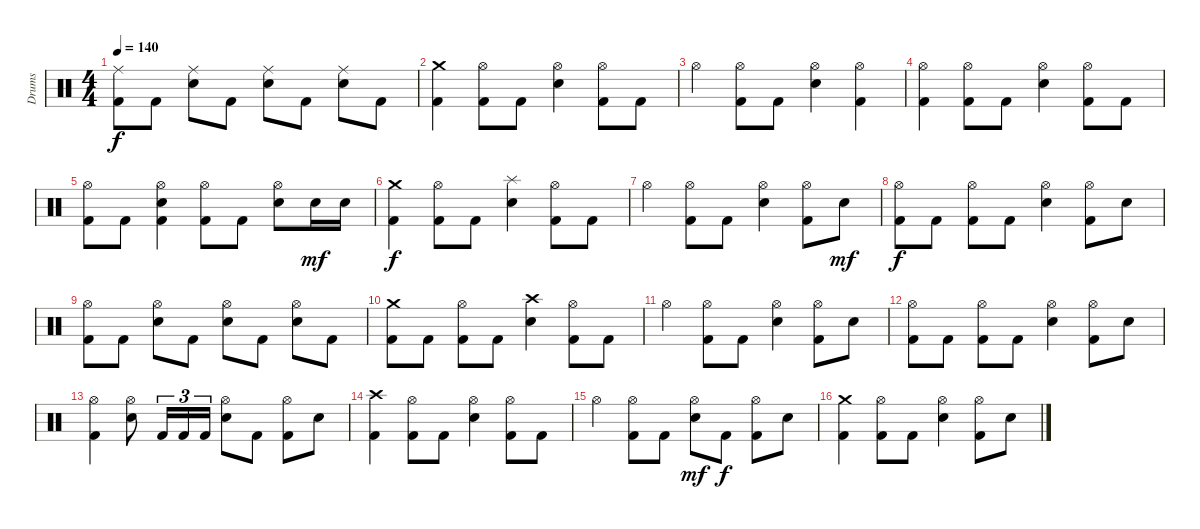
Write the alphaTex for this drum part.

\track ("Drums" "Drums") {instrument percussion}
\staff {score}
\articulation defaults
\ts (4 4)
\tempo 140
\clef neutral
\ks c
("Ride (middle)" "Kick (hit) 2").8{dy f} "Kick (hit) 2".8 ("Ride (middle)" "Electric Snare (hit)").8 "Kick (hit) 2".8 ("Ride (middle)" "Electric Snare (hit)").8 "Kick (hit) 2".8 ("Ride (middle)" "Electric Snare (hit)").8 "Kick (hit) 2".8 |
("Crash medium (hit)" "Kick (hit) 2").4 ("Hi-Hat (open)" "Kick (hit) 2").8 "Kick (hit) 2".8 ("Hi-Hat (open)" "Electric Snare (hit)").4 ("Hi-Hat (open)" "Kick (hit) 2").8 "Kick (hit) 2".8 |
"Hi-Hat (open)".4 ("Hi-Hat (open)" "Kick (hit) 2").8 "Kick (hit) 2".8 ("Hi-Hat (open)" "Electric Snare (hit)").4 ("Hi-Hat (open)" "Kick (hit) 2").4 |
("Hi-Hat (open)" "Kick (hit) 2").4 ("Hi-Hat (open)" "Kick (hit) 2").8 "Kick (hit) 2".8 ("Hi-Hat (open)" "Electric Snare (hit)").4 ("Hi-Hat (open)" "Kick (hit) 2").8 "Kick (hit) 2".8 |
("Hi-Hat (open)" "Kick (hit) 2").8 "Kick (hit) 2".8 ("Hi-Hat (open)" "Electric Snare (hit)" "Kick (hit) 2").4 ("Hi-Hat (open)" "Kick (hit) 2").8 "Kick (hit) 2".8 ("Hi-Hat (open)" "Electric Snare (hit)").8 "Electric Snare (hit)".16{dy mf} "Electric Snare (hit)".16 |
("Crash medium (hit)" "Kick (hit) 2").4{dy f} ("Hi-Hat (open)" "Kick (hit) 2").8 "Kick (hit) 2".8 ("Splash (hit)" "Electric Snare (hit)").4 ("Hi-Hat (open)" "Kick (hit) 2").8 "Kick (hit) 2".8 |
"Hi-Hat (open)".4 ("Hi-Hat (open)" "Kick (hit) 2").8 "Kick (hit) 2".8 ("Hi-Hat (open)" "Electric Snare (hit)").4 ("Hi-Hat (open)" "Kick (hit) 2").8 "Electric Snare (hit)".8{dy mf} |
("Hi-Hat (open)" "Kick (hit) 2").8{dy f} "Kick (hit) 2".8 ("Hi-Hat (open)" "Kick (hit) 2").8 "Kick (hit) 2".8 ("Hi-Hat (open)" "Electric Snare (hit)").4 ("Hi-Hat (open)" "Kick (hit) 2").8 "Electric Snare (hit)".8 |
("Hi-Hat (open)" "Kick (hit) 2").8 "Kick (hit) 2".8 ("Hi-Hat (open)" "Electric Snare (hit)").8 "Kick (hit) 2".8 ("Hi-Hat (open)" "Electric Snare (hit)").8 "Kick (hit) 2".8 ("Hi-Hat (open)" "Electric Snare (hit)").8 "Kick (hit) 2".8 |
("Crash medium (hit)" "Kick (hit) 2").8 "Kick (hit) 2".8 ("Hi-Hat (open)" "Kick (hit) 2").8 "Kick (hit) 2".8 ("Crash high (hit)" "Electric Snare (hit)").4 ("Hi-Hat (open)" "Kick (hit) 2").8 "Kick (hit) 2".8 |
"Hi-Hat (open)".4 ("Hi-Hat (open)" "Kick (hit) 2").8 "Kick (hit) 2".8 ("Hi-Hat (open)" "Electric Snare (hit)").4 ("Hi-Hat (open)" "Kick (hit) 2").8 "Electric Snare (hit)".8 |
("Hi-Hat (open)" "Kick (hit) 2").8 "Kick (hit) 2".8 ("Hi-Hat (open)" "Kick (hit) 2").8 "Kick (hit) 2".8 ("Hi-Hat (open)" "Electric Snare (hit)").4 ("Hi-Hat (open)" "Kick (hit) 2").8 "Electric Snare (hit)".8 |
("Hi-Hat (open)" "Kick (hit) 2").4 ("Hi-Hat (open)" "Electric Snare (hit)").8 "Kick (hit) 2".16{tu (3 2)} "Kick (hit) 2".16{tu (3 2)} "Kick (hit) 2".16{tu (3 2)} ("Hi-Hat (open)" "Electric Snare (hit)").8 "Kick (hit) 2".8 ("Hi-Hat (open)" "Kick (hit) 2").8 "Electric Snare (hit)".8 |
("Crash high (hit)" "Kick (hit) 2").4 ("Hi-Hat (open)" "Kick (hit) 2").8 "Kick (hit) 2".8 ("Hi-Hat (open)" "Electric Snare (hit)").4 ("Hi-Hat (open)" "Kick (hit) 2").8 "Kick (hit) 2".8 |
"Hi-Hat (open)".4 ("Hi-Hat (open)" "Kick (hit) 2").8 "Kick (hit) 2".8 ("Hi-Hat (open)" "Electric Snare (hit)").8{dy mf} "Kick (hit) 2".8{dy f} ("Hi-Hat (open)" "Kick (hit) 2").8 "Electric Snare (hit)".8 |
("Crash medium (hit)" "Kick (hit) 2").4 ("Hi-Hat (open)" "Kick (hit) 2").8 "Kick (hit) 2".8 ("Hi-Hat (open)" "Electric Snare (hit)").4 ("Hi-Hat (open)" "Kick (hit) 2").8 "Electric Snare (hit)".8
